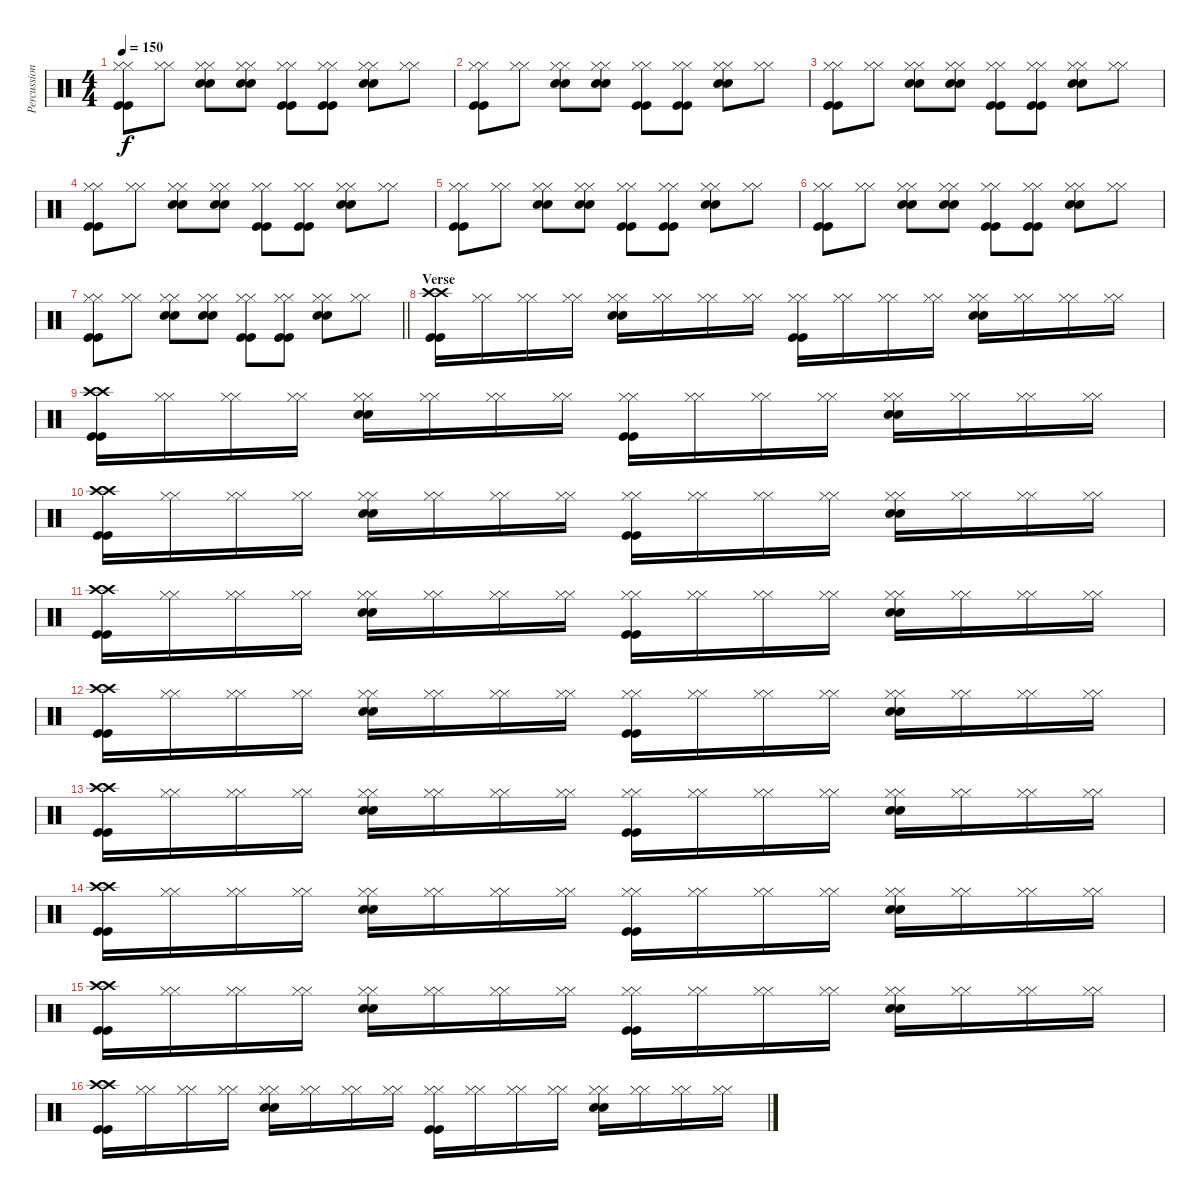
\track ("Percussion" "Percussion") {instrument percussion bank 129}
\staff
\articulation defaults
\ts (4 4)
\tempo 150
\clef neutral
\ks c
("Hi-Hat (closed)" "Hi-Hat (closed)" "Kick (hit)" "Kick (hit)").8{dy f} ("Hi-Hat (closed)" "Hi-Hat (closed)").8 ("Hi-Hat (closed)" "Hi-Hat (closed)" "Snare (hit) 2" "Snare (hit) 2").8 ("Hi-Hat (closed)" "Hi-Hat (closed)" "Snare (hit) 2" "Snare (hit) 2").8 ("Hi-Hat (closed)" "Hi-Hat (closed)" "Kick (hit)" "Kick (hit)").8 ("Hi-Hat (closed)" "Hi-Hat (closed)" "Kick (hit)" "Kick (hit)").8 ("Hi-Hat (closed)" "Hi-Hat (closed)" "Snare (hit) 2" "Snare (hit) 2").8 ("Hi-Hat (closed)" "Hi-Hat (closed)").8 |
("Hi-Hat (closed)" "Hi-Hat (closed)" "Kick (hit)" "Kick (hit)").8 ("Hi-Hat (closed)" "Hi-Hat (closed)").8 ("Hi-Hat (closed)" "Hi-Hat (closed)" "Snare (hit) 2" "Snare (hit) 2").8 ("Hi-Hat (closed)" "Hi-Hat (closed)" "Snare (hit) 2" "Snare (hit) 2").8 ("Hi-Hat (closed)" "Hi-Hat (closed)" "Kick (hit)" "Kick (hit)").8 ("Hi-Hat (closed)" "Hi-Hat (closed)" "Kick (hit)" "Kick (hit)").8 ("Hi-Hat (closed)" "Hi-Hat (closed)" "Snare (hit) 2" "Snare (hit) 2").8 ("Hi-Hat (closed)" "Hi-Hat (closed)").8 |
("Hi-Hat (closed)" "Hi-Hat (closed)" "Kick (hit)" "Kick (hit)").8 ("Hi-Hat (closed)" "Hi-Hat (closed)").8 ("Hi-Hat (closed)" "Hi-Hat (closed)" "Snare (hit) 2" "Snare (hit) 2").8 ("Hi-Hat (closed)" "Hi-Hat (closed)" "Snare (hit) 2" "Snare (hit) 2").8 ("Hi-Hat (closed)" "Hi-Hat (closed)" "Kick (hit)" "Kick (hit)").8 ("Hi-Hat (closed)" "Hi-Hat (closed)" "Kick (hit)" "Kick (hit)").8 ("Hi-Hat (closed)" "Hi-Hat (closed)" "Snare (hit) 2" "Snare (hit) 2").8 ("Hi-Hat (closed)" "Hi-Hat (closed)").8 |
("Hi-Hat (closed)" "Hi-Hat (closed)" "Kick (hit)" "Kick (hit)").8 ("Hi-Hat (closed)" "Hi-Hat (closed)").8 ("Hi-Hat (closed)" "Hi-Hat (closed)" "Snare (hit) 2" "Snare (hit) 2").8 ("Hi-Hat (closed)" "Hi-Hat (closed)" "Snare (hit) 2" "Snare (hit) 2").8 ("Hi-Hat (closed)" "Hi-Hat (closed)" "Kick (hit)" "Kick (hit)").8 ("Hi-Hat (closed)" "Hi-Hat (closed)" "Kick (hit)" "Kick (hit)").8 ("Hi-Hat (closed)" "Hi-Hat (closed)" "Snare (hit) 2" "Snare (hit) 2").8 ("Hi-Hat (closed)" "Hi-Hat (closed)").8 |
("Hi-Hat (closed)" "Hi-Hat (closed)" "Kick (hit)" "Kick (hit)").8 ("Hi-Hat (closed)" "Hi-Hat (closed)").8 ("Hi-Hat (closed)" "Hi-Hat (closed)" "Snare (hit) 2" "Snare (hit) 2").8 ("Hi-Hat (closed)" "Hi-Hat (closed)" "Snare (hit) 2" "Snare (hit) 2").8 ("Hi-Hat (closed)" "Hi-Hat (closed)" "Kick (hit)" "Kick (hit)").8 ("Hi-Hat (closed)" "Hi-Hat (closed)" "Kick (hit)" "Kick (hit)").8 ("Hi-Hat (closed)" "Hi-Hat (closed)" "Snare (hit) 2" "Snare (hit) 2").8 ("Hi-Hat (closed)" "Hi-Hat (closed)").8 |
("Hi-Hat (closed)" "Hi-Hat (closed)" "Kick (hit)" "Kick (hit)").8 ("Hi-Hat (closed)" "Hi-Hat (closed)").8 ("Hi-Hat (closed)" "Hi-Hat (closed)" "Snare (hit) 2" "Snare (hit) 2").8 ("Hi-Hat (closed)" "Hi-Hat (closed)" "Snare (hit) 2" "Snare (hit) 2").8 ("Hi-Hat (closed)" "Hi-Hat (closed)" "Kick (hit)" "Kick (hit)").8 ("Hi-Hat (closed)" "Hi-Hat (closed)" "Kick (hit)" "Kick (hit)").8 ("Hi-Hat (closed)" "Hi-Hat (closed)" "Snare (hit) 2" "Snare (hit) 2").8 ("Hi-Hat (closed)" "Hi-Hat (closed)").8 |
\barLineRight lightlight
("Hi-Hat (closed)" "Hi-Hat (closed)" "Kick (hit)" "Kick (hit)").8 ("Hi-Hat (closed)" "Hi-Hat (closed)").8 ("Hi-Hat (closed)" "Hi-Hat (closed)" "Snare (hit) 2" "Snare (hit) 2").8 ("Hi-Hat (closed)" "Hi-Hat (closed)" "Snare (hit) 2" "Snare (hit) 2").8 ("Hi-Hat (closed)" "Hi-Hat (closed)" "Kick (hit)" "Kick (hit)").8 ("Hi-Hat (closed)" "Hi-Hat (closed)" "Kick (hit)" "Kick (hit)").8 ("Hi-Hat (closed)" "Hi-Hat (closed)" "Snare (hit) 2" "Snare (hit) 2").8 ("Hi-Hat (closed)" "Hi-Hat (closed)").8 |
\section ("" "Verse")
("Crash high (hit)" "Crash high (hit)" "Kick (hit)" "Kick (hit)").16 ("Hi-Hat (closed)" "Hi-Hat (closed)").16 ("Hi-Hat (closed)" "Hi-Hat (closed)").16 ("Hi-Hat (closed)" "Hi-Hat (closed)").16 ("Hi-Hat (closed)" "Hi-Hat (closed)" "Snare (hit) 2" "Snare (hit) 2").16 ("Hi-Hat (closed)" "Hi-Hat (closed)").16 ("Hi-Hat (closed)" "Hi-Hat (closed)").16 ("Hi-Hat (closed)" "Hi-Hat (closed)").16 ("Hi-Hat (closed)" "Hi-Hat (closed)" "Kick (hit)" "Kick (hit)").16 ("Hi-Hat (closed)" "Hi-Hat (closed)").16 ("Hi-Hat (closed)" "Hi-Hat (closed)").16 ("Hi-Hat (closed)" "Hi-Hat (closed)").16 ("Hi-Hat (closed)" "Hi-Hat (closed)" "Snare (hit) 2" "Snare (hit) 2").16 ("Hi-Hat (closed)" "Hi-Hat (closed)").16 ("Hi-Hat (closed)" "Hi-Hat (closed)").16 ("Hi-Hat (closed)" "Hi-Hat (closed)").16 |
("Crash high (hit)" "Crash high (hit)" "Kick (hit)" "Kick (hit)").16 ("Hi-Hat (closed)" "Hi-Hat (closed)").16 ("Hi-Hat (closed)" "Hi-Hat (closed)").16 ("Hi-Hat (closed)" "Hi-Hat (closed)").16 ("Hi-Hat (closed)" "Hi-Hat (closed)" "Snare (hit) 2" "Snare (hit) 2").16 ("Hi-Hat (closed)" "Hi-Hat (closed)").16 ("Hi-Hat (closed)" "Hi-Hat (closed)").16 ("Hi-Hat (closed)" "Hi-Hat (closed)").16 ("Hi-Hat (closed)" "Hi-Hat (closed)" "Kick (hit)" "Kick (hit)").16 ("Hi-Hat (closed)" "Hi-Hat (closed)").16 ("Hi-Hat (closed)" "Hi-Hat (closed)").16 ("Hi-Hat (closed)" "Hi-Hat (closed)").16 ("Hi-Hat (closed)" "Hi-Hat (closed)" "Snare (hit) 2" "Snare (hit) 2").16 ("Hi-Hat (closed)" "Hi-Hat (closed)").16 ("Hi-Hat (closed)" "Hi-Hat (closed)").16 ("Hi-Hat (closed)" "Hi-Hat (closed)").16 |
("Crash high (hit)" "Crash high (hit)" "Kick (hit)" "Kick (hit)").16 ("Hi-Hat (closed)" "Hi-Hat (closed)").16 ("Hi-Hat (closed)" "Hi-Hat (closed)").16 ("Hi-Hat (closed)" "Hi-Hat (closed)").16 ("Hi-Hat (closed)" "Hi-Hat (closed)" "Snare (hit) 2" "Snare (hit) 2").16 ("Hi-Hat (closed)" "Hi-Hat (closed)").16 ("Hi-Hat (closed)" "Hi-Hat (closed)").16 ("Hi-Hat (closed)" "Hi-Hat (closed)").16 ("Hi-Hat (closed)" "Hi-Hat (closed)" "Kick (hit)" "Kick (hit)").16 ("Hi-Hat (closed)" "Hi-Hat (closed)").16 ("Hi-Hat (closed)" "Hi-Hat (closed)").16 ("Hi-Hat (closed)" "Hi-Hat (closed)").16 ("Hi-Hat (closed)" "Hi-Hat (closed)" "Snare (hit) 2" "Snare (hit) 2").16 ("Hi-Hat (closed)" "Hi-Hat (closed)").16 ("Hi-Hat (closed)" "Hi-Hat (closed)").16 ("Hi-Hat (closed)" "Hi-Hat (closed)").16 |
("Crash high (hit)" "Crash high (hit)" "Kick (hit)" "Kick (hit)").16 ("Hi-Hat (closed)" "Hi-Hat (closed)").16 ("Hi-Hat (closed)" "Hi-Hat (closed)").16 ("Hi-Hat (closed)" "Hi-Hat (closed)").16 ("Hi-Hat (closed)" "Hi-Hat (closed)" "Snare (hit) 2" "Snare (hit) 2").16 ("Hi-Hat (closed)" "Hi-Hat (closed)").16 ("Hi-Hat (closed)" "Hi-Hat (closed)").16 ("Hi-Hat (closed)" "Hi-Hat (closed)").16 ("Hi-Hat (closed)" "Hi-Hat (closed)" "Kick (hit)" "Kick (hit)").16 ("Hi-Hat (closed)" "Hi-Hat (closed)").16 ("Hi-Hat (closed)" "Hi-Hat (closed)").16 ("Hi-Hat (closed)" "Hi-Hat (closed)").16 ("Hi-Hat (closed)" "Hi-Hat (closed)" "Snare (hit) 2" "Snare (hit) 2").16 ("Hi-Hat (closed)" "Hi-Hat (closed)").16 ("Hi-Hat (closed)" "Hi-Hat (closed)").16 ("Hi-Hat (closed)" "Hi-Hat (closed)").16 |
("Crash high (hit)" "Crash high (hit)" "Kick (hit)" "Kick (hit)").16 ("Hi-Hat (closed)" "Hi-Hat (closed)").16 ("Hi-Hat (closed)" "Hi-Hat (closed)").16 ("Hi-Hat (closed)" "Hi-Hat (closed)").16 ("Hi-Hat (closed)" "Hi-Hat (closed)" "Snare (hit) 2" "Snare (hit) 2").16 ("Hi-Hat (closed)" "Hi-Hat (closed)").16 ("Hi-Hat (closed)" "Hi-Hat (closed)").16 ("Hi-Hat (closed)" "Hi-Hat (closed)").16 ("Hi-Hat (closed)" "Hi-Hat (closed)" "Kick (hit)" "Kick (hit)").16 ("Hi-Hat (closed)" "Hi-Hat (closed)").16 ("Hi-Hat (closed)" "Hi-Hat (closed)").16 ("Hi-Hat (closed)" "Hi-Hat (closed)").16 ("Hi-Hat (closed)" "Hi-Hat (closed)" "Snare (hit) 2" "Snare (hit) 2").16 ("Hi-Hat (closed)" "Hi-Hat (closed)").16 ("Hi-Hat (closed)" "Hi-Hat (closed)").16 ("Hi-Hat (closed)" "Hi-Hat (closed)").16 |
("Crash high (hit)" "Crash high (hit)" "Kick (hit)" "Kick (hit)").16 ("Hi-Hat (closed)" "Hi-Hat (closed)").16 ("Hi-Hat (closed)" "Hi-Hat (closed)").16 ("Hi-Hat (closed)" "Hi-Hat (closed)").16 ("Hi-Hat (closed)" "Hi-Hat (closed)" "Snare (hit) 2" "Snare (hit) 2").16 ("Hi-Hat (closed)" "Hi-Hat (closed)").16 ("Hi-Hat (closed)" "Hi-Hat (closed)").16 ("Hi-Hat (closed)" "Hi-Hat (closed)").16 ("Hi-Hat (closed)" "Hi-Hat (closed)" "Kick (hit)" "Kick (hit)").16 ("Hi-Hat (closed)" "Hi-Hat (closed)").16 ("Hi-Hat (closed)" "Hi-Hat (closed)").16 ("Hi-Hat (closed)" "Hi-Hat (closed)").16 ("Hi-Hat (closed)" "Hi-Hat (closed)" "Snare (hit) 2" "Snare (hit) 2").16 ("Hi-Hat (closed)" "Hi-Hat (closed)").16 ("Hi-Hat (closed)" "Hi-Hat (closed)").16 ("Hi-Hat (closed)" "Hi-Hat (closed)").16 |
("Crash high (hit)" "Crash high (hit)" "Kick (hit)" "Kick (hit)").16 ("Hi-Hat (closed)" "Hi-Hat (closed)").16 ("Hi-Hat (closed)" "Hi-Hat (closed)").16 ("Hi-Hat (closed)" "Hi-Hat (closed)").16 ("Hi-Hat (closed)" "Hi-Hat (closed)" "Snare (hit) 2" "Snare (hit) 2").16 ("Hi-Hat (closed)" "Hi-Hat (closed)").16 ("Hi-Hat (closed)" "Hi-Hat (closed)").16 ("Hi-Hat (closed)" "Hi-Hat (closed)").16 ("Hi-Hat (closed)" "Hi-Hat (closed)" "Kick (hit)" "Kick (hit)").16 ("Hi-Hat (closed)" "Hi-Hat (closed)").16 ("Hi-Hat (closed)" "Hi-Hat (closed)").16 ("Hi-Hat (closed)" "Hi-Hat (closed)").16 ("Hi-Hat (closed)" "Hi-Hat (closed)" "Snare (hit) 2" "Snare (hit) 2").16 ("Hi-Hat (closed)" "Hi-Hat (closed)").16 ("Hi-Hat (closed)" "Hi-Hat (closed)").16 ("Hi-Hat (closed)" "Hi-Hat (closed)").16 |
("Crash high (hit)" "Crash high (hit)" "Kick (hit)" "Kick (hit)").16 ("Hi-Hat (closed)" "Hi-Hat (closed)").16 ("Hi-Hat (closed)" "Hi-Hat (closed)").16 ("Hi-Hat (closed)" "Hi-Hat (closed)").16 ("Hi-Hat (closed)" "Hi-Hat (closed)" "Snare (hit) 2" "Snare (hit) 2").16 ("Hi-Hat (closed)" "Hi-Hat (closed)").16 ("Hi-Hat (closed)" "Hi-Hat (closed)").16 ("Hi-Hat (closed)" "Hi-Hat (closed)").16 ("Hi-Hat (closed)" "Hi-Hat (closed)" "Kick (hit)" "Kick (hit)").16 ("Hi-Hat (closed)" "Hi-Hat (closed)").16 ("Hi-Hat (closed)" "Hi-Hat (closed)").16 ("Hi-Hat (closed)" "Hi-Hat (closed)").16 ("Hi-Hat (closed)" "Hi-Hat (closed)" "Snare (hit) 2" "Snare (hit) 2").16 ("Hi-Hat (closed)" "Hi-Hat (closed)").16 ("Hi-Hat (closed)" "Hi-Hat (closed)").16 ("Hi-Hat (closed)" "Hi-Hat (closed)").16 |
("Crash high (hit)" "Crash high (hit)" "Kick (hit)" "Kick (hit)").16 ("Hi-Hat (closed)" "Hi-Hat (closed)").16 ("Hi-Hat (closed)" "Hi-Hat (closed)").16 ("Hi-Hat (closed)" "Hi-Hat (closed)").16 ("Hi-Hat (closed)" "Hi-Hat (closed)" "Snare (hit) 2" "Snare (hit) 2").16 ("Hi-Hat (closed)" "Hi-Hat (closed)").16 ("Hi-Hat (closed)" "Hi-Hat (closed)").16 ("Hi-Hat (closed)" "Hi-Hat (closed)").16 ("Hi-Hat (closed)" "Hi-Hat (closed)" "Kick (hit)" "Kick (hit)").16 ("Hi-Hat (closed)" "Hi-Hat (closed)").16 ("Hi-Hat (closed)" "Hi-Hat (closed)").16 ("Hi-Hat (closed)" "Hi-Hat (closed)").16 ("Hi-Hat (closed)" "Hi-Hat (closed)" "Snare (hit) 2" "Snare (hit) 2").16 ("Hi-Hat (closed)" "Hi-Hat (closed)").16 ("Hi-Hat (closed)" "Hi-Hat (closed)").16 ("Hi-Hat (closed)" "Hi-Hat (closed)").16
